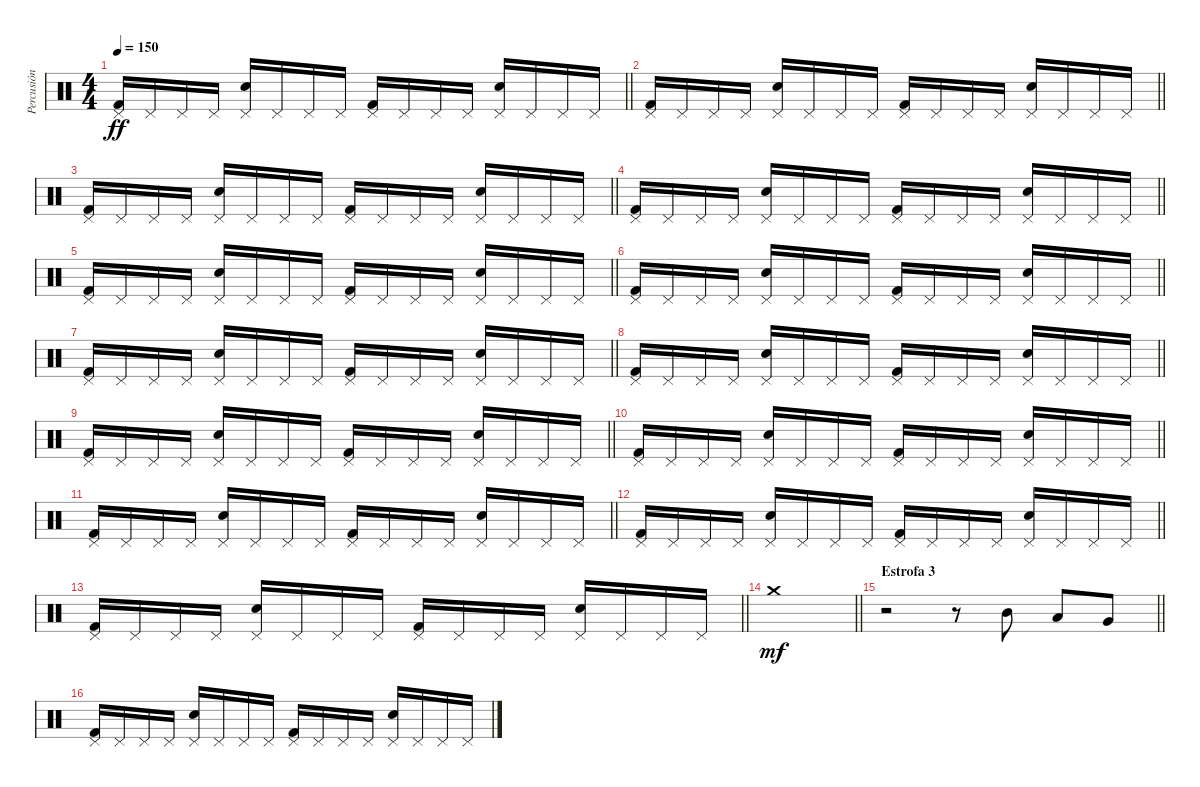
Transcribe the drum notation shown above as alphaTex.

\track ("Percusión" "Percusión") {instrument percussion}
\staff {score}
\articulation defaults
\ts (4 4)
\tempo 150
\clef neutral
\barLineRight lightlight
\ks c
("Pedal Hi-Hat (hit)" "Kick (hit) 2").16{dy ff} "Pedal Hi-Hat (hit)".16 "Pedal Hi-Hat (hit)".16 "Pedal Hi-Hat (hit)".16 ("Pedal Hi-Hat (hit)" "Electric Snare (hit)").16 "Pedal Hi-Hat (hit)".16 "Pedal Hi-Hat (hit)".16 "Pedal Hi-Hat (hit)".16 ("Pedal Hi-Hat (hit)" "Kick (hit) 2").16 "Pedal Hi-Hat (hit)".16 "Pedal Hi-Hat (hit)".16 "Pedal Hi-Hat (hit)".16 ("Pedal Hi-Hat (hit)" "Electric Snare (hit)").16 "Pedal Hi-Hat (hit)".16 "Pedal Hi-Hat (hit)".16 "Pedal Hi-Hat (hit)".16 |
\barLineRight lightlight
("Pedal Hi-Hat (hit)" "Kick (hit) 2").16 "Pedal Hi-Hat (hit)".16 "Pedal Hi-Hat (hit)".16 "Pedal Hi-Hat (hit)".16 ("Pedal Hi-Hat (hit)" "Electric Snare (hit)").16 "Pedal Hi-Hat (hit)".16 "Pedal Hi-Hat (hit)".16 "Pedal Hi-Hat (hit)".16 ("Pedal Hi-Hat (hit)" "Kick (hit) 2").16 "Pedal Hi-Hat (hit)".16 "Pedal Hi-Hat (hit)".16 "Pedal Hi-Hat (hit)".16 ("Pedal Hi-Hat (hit)" "Electric Snare (hit)").16 "Pedal Hi-Hat (hit)".16 "Pedal Hi-Hat (hit)".16 "Pedal Hi-Hat (hit)".16 |
\barLineRight lightlight
("Pedal Hi-Hat (hit)" "Kick (hit) 2").16 "Pedal Hi-Hat (hit)".16 "Pedal Hi-Hat (hit)".16 "Pedal Hi-Hat (hit)".16 ("Pedal Hi-Hat (hit)" "Electric Snare (hit)").16 "Pedal Hi-Hat (hit)".16 "Pedal Hi-Hat (hit)".16 "Pedal Hi-Hat (hit)".16 ("Pedal Hi-Hat (hit)" "Kick (hit) 2").16 "Pedal Hi-Hat (hit)".16 "Pedal Hi-Hat (hit)".16 "Pedal Hi-Hat (hit)".16 ("Pedal Hi-Hat (hit)" "Electric Snare (hit)").16 "Pedal Hi-Hat (hit)".16 "Pedal Hi-Hat (hit)".16 "Pedal Hi-Hat (hit)".16 |
\barLineRight lightlight
("Pedal Hi-Hat (hit)" "Kick (hit) 2").16 "Pedal Hi-Hat (hit)".16 "Pedal Hi-Hat (hit)".16 "Pedal Hi-Hat (hit)".16 ("Pedal Hi-Hat (hit)" "Electric Snare (hit)").16 "Pedal Hi-Hat (hit)".16 "Pedal Hi-Hat (hit)".16 "Pedal Hi-Hat (hit)".16 ("Pedal Hi-Hat (hit)" "Kick (hit) 2").16 "Pedal Hi-Hat (hit)".16 "Pedal Hi-Hat (hit)".16 "Pedal Hi-Hat (hit)".16 ("Pedal Hi-Hat (hit)" "Electric Snare (hit)").16 "Pedal Hi-Hat (hit)".16 "Pedal Hi-Hat (hit)".16 "Pedal Hi-Hat (hit)".16 |
\barLineRight lightlight
("Pedal Hi-Hat (hit)" "Kick (hit) 2").16 "Pedal Hi-Hat (hit)".16 "Pedal Hi-Hat (hit)".16 "Pedal Hi-Hat (hit)".16 ("Pedal Hi-Hat (hit)" "Electric Snare (hit)").16 "Pedal Hi-Hat (hit)".16 "Pedal Hi-Hat (hit)".16 "Pedal Hi-Hat (hit)".16 ("Pedal Hi-Hat (hit)" "Kick (hit) 2").16 "Pedal Hi-Hat (hit)".16 "Pedal Hi-Hat (hit)".16 "Pedal Hi-Hat (hit)".16 ("Pedal Hi-Hat (hit)" "Electric Snare (hit)").16 "Pedal Hi-Hat (hit)".16 "Pedal Hi-Hat (hit)".16 "Pedal Hi-Hat (hit)".16 |
\barLineRight lightlight
("Pedal Hi-Hat (hit)" "Kick (hit) 2").16 "Pedal Hi-Hat (hit)".16 "Pedal Hi-Hat (hit)".16 "Pedal Hi-Hat (hit)".16 ("Pedal Hi-Hat (hit)" "Electric Snare (hit)").16 "Pedal Hi-Hat (hit)".16 "Pedal Hi-Hat (hit)".16 "Pedal Hi-Hat (hit)".16 ("Pedal Hi-Hat (hit)" "Kick (hit) 2").16 "Pedal Hi-Hat (hit)".16 "Pedal Hi-Hat (hit)".16 "Pedal Hi-Hat (hit)".16 ("Pedal Hi-Hat (hit)" "Electric Snare (hit)").16 "Pedal Hi-Hat (hit)".16 "Pedal Hi-Hat (hit)".16 "Pedal Hi-Hat (hit)".16 |
\barLineRight lightlight
("Pedal Hi-Hat (hit)" "Kick (hit) 2").16 "Pedal Hi-Hat (hit)".16 "Pedal Hi-Hat (hit)".16 "Pedal Hi-Hat (hit)".16 ("Pedal Hi-Hat (hit)" "Electric Snare (hit)").16 "Pedal Hi-Hat (hit)".16 "Pedal Hi-Hat (hit)".16 "Pedal Hi-Hat (hit)".16 ("Pedal Hi-Hat (hit)" "Kick (hit) 2").16 "Pedal Hi-Hat (hit)".16 "Pedal Hi-Hat (hit)".16 "Pedal Hi-Hat (hit)".16 ("Pedal Hi-Hat (hit)" "Electric Snare (hit)").16 "Pedal Hi-Hat (hit)".16 "Pedal Hi-Hat (hit)".16 "Pedal Hi-Hat (hit)".16 |
\barLineRight lightlight
("Pedal Hi-Hat (hit)" "Kick (hit) 2").16 "Pedal Hi-Hat (hit)".16 "Pedal Hi-Hat (hit)".16 "Pedal Hi-Hat (hit)".16 ("Pedal Hi-Hat (hit)" "Electric Snare (hit)").16 "Pedal Hi-Hat (hit)".16 "Pedal Hi-Hat (hit)".16 "Pedal Hi-Hat (hit)".16 ("Pedal Hi-Hat (hit)" "Kick (hit) 2").16 "Pedal Hi-Hat (hit)".16 "Pedal Hi-Hat (hit)".16 "Pedal Hi-Hat (hit)".16 ("Pedal Hi-Hat (hit)" "Electric Snare (hit)").16 "Pedal Hi-Hat (hit)".16 "Pedal Hi-Hat (hit)".16 "Pedal Hi-Hat (hit)".16 |
\barLineRight lightlight
("Pedal Hi-Hat (hit)" "Kick (hit) 2").16 "Pedal Hi-Hat (hit)".16 "Pedal Hi-Hat (hit)".16 "Pedal Hi-Hat (hit)".16 ("Pedal Hi-Hat (hit)" "Electric Snare (hit)").16 "Pedal Hi-Hat (hit)".16 "Pedal Hi-Hat (hit)".16 "Pedal Hi-Hat (hit)".16 ("Pedal Hi-Hat (hit)" "Kick (hit) 2").16 "Pedal Hi-Hat (hit)".16 "Pedal Hi-Hat (hit)".16 "Pedal Hi-Hat (hit)".16 ("Pedal Hi-Hat (hit)" "Electric Snare (hit)").16 "Pedal Hi-Hat (hit)".16 "Pedal Hi-Hat (hit)".16 "Pedal Hi-Hat (hit)".16 |
\barLineRight lightlight
("Pedal Hi-Hat (hit)" "Kick (hit) 2").16 "Pedal Hi-Hat (hit)".16 "Pedal Hi-Hat (hit)".16 "Pedal Hi-Hat (hit)".16 ("Pedal Hi-Hat (hit)" "Electric Snare (hit)").16 "Pedal Hi-Hat (hit)".16 "Pedal Hi-Hat (hit)".16 "Pedal Hi-Hat (hit)".16 ("Pedal Hi-Hat (hit)" "Kick (hit) 2").16 "Pedal Hi-Hat (hit)".16 "Pedal Hi-Hat (hit)".16 "Pedal Hi-Hat (hit)".16 ("Pedal Hi-Hat (hit)" "Electric Snare (hit)").16 "Pedal Hi-Hat (hit)".16 "Pedal Hi-Hat (hit)".16 "Pedal Hi-Hat (hit)".16 |
\barLineRight lightlight
("Pedal Hi-Hat (hit)" "Kick (hit) 2").16 "Pedal Hi-Hat (hit)".16 "Pedal Hi-Hat (hit)".16 "Pedal Hi-Hat (hit)".16 ("Pedal Hi-Hat (hit)" "Electric Snare (hit)").16 "Pedal Hi-Hat (hit)".16 "Pedal Hi-Hat (hit)".16 "Pedal Hi-Hat (hit)".16 ("Pedal Hi-Hat (hit)" "Kick (hit) 2").16 "Pedal Hi-Hat (hit)".16 "Pedal Hi-Hat (hit)".16 "Pedal Hi-Hat (hit)".16 ("Pedal Hi-Hat (hit)" "Electric Snare (hit)").16 "Pedal Hi-Hat (hit)".16 "Pedal Hi-Hat (hit)".16 "Pedal Hi-Hat (hit)".16 |
\barLineRight lightlight
("Pedal Hi-Hat (hit)" "Kick (hit) 2").16 "Pedal Hi-Hat (hit)".16 "Pedal Hi-Hat (hit)".16 "Pedal Hi-Hat (hit)".16 ("Pedal Hi-Hat (hit)" "Electric Snare (hit)").16 "Pedal Hi-Hat (hit)".16 "Pedal Hi-Hat (hit)".16 "Pedal Hi-Hat (hit)".16 ("Pedal Hi-Hat (hit)" "Kick (hit) 2").16 "Pedal Hi-Hat (hit)".16 "Pedal Hi-Hat (hit)".16 "Pedal Hi-Hat (hit)".16 ("Pedal Hi-Hat (hit)" "Electric Snare (hit)").16 "Pedal Hi-Hat (hit)".16 "Pedal Hi-Hat (hit)".16 "Pedal Hi-Hat (hit)".16 |
\barLineRight lightlight
("Pedal Hi-Hat (hit)" "Kick (hit) 2").16 "Pedal Hi-Hat (hit)".16 "Pedal Hi-Hat (hit)".16 "Pedal Hi-Hat (hit)".16 ("Pedal Hi-Hat (hit)" "Electric Snare (hit)").16 "Pedal Hi-Hat (hit)".16 "Pedal Hi-Hat (hit)".16 "Pedal Hi-Hat (hit)".16 ("Pedal Hi-Hat (hit)" "Kick (hit) 2").16 "Pedal Hi-Hat (hit)".16 "Pedal Hi-Hat (hit)".16 "Pedal Hi-Hat (hit)".16 ("Pedal Hi-Hat (hit)" "Electric Snare (hit)").16 "Pedal Hi-Hat (hit)".16 "Pedal Hi-Hat (hit)".16 "Pedal Hi-Hat (hit)".16 |
\barLineRight lightlight "Crash medium (hit)".1{dy mf}
|
\section ("" "Estrofa 3")
\barLineRight lightlight
r.2 r.8 "Mid Tom (hit)".8 "Low Tom (hit)".8 "Very Low Tom (hit)".8 |
("Pedal Hi-Hat (hit)" "Kick (hit) 2").16 "Pedal Hi-Hat (hit)".16 "Pedal Hi-Hat (hit)".16 "Pedal Hi-Hat (hit)".16 ("Pedal Hi-Hat (hit)" "Electric Snare (hit)").16 "Pedal Hi-Hat (hit)".16 "Pedal Hi-Hat (hit)".16 "Pedal Hi-Hat (hit)".16 ("Pedal Hi-Hat (hit)" "Kick (hit) 2").16 "Pedal Hi-Hat (hit)".16 "Pedal Hi-Hat (hit)".16 "Pedal Hi-Hat (hit)".16 ("Pedal Hi-Hat (hit)" "Electric Snare (hit)").16 "Pedal Hi-Hat (hit)".16 "Pedal Hi-Hat (hit)".16 "Pedal Hi-Hat (hit)".16
